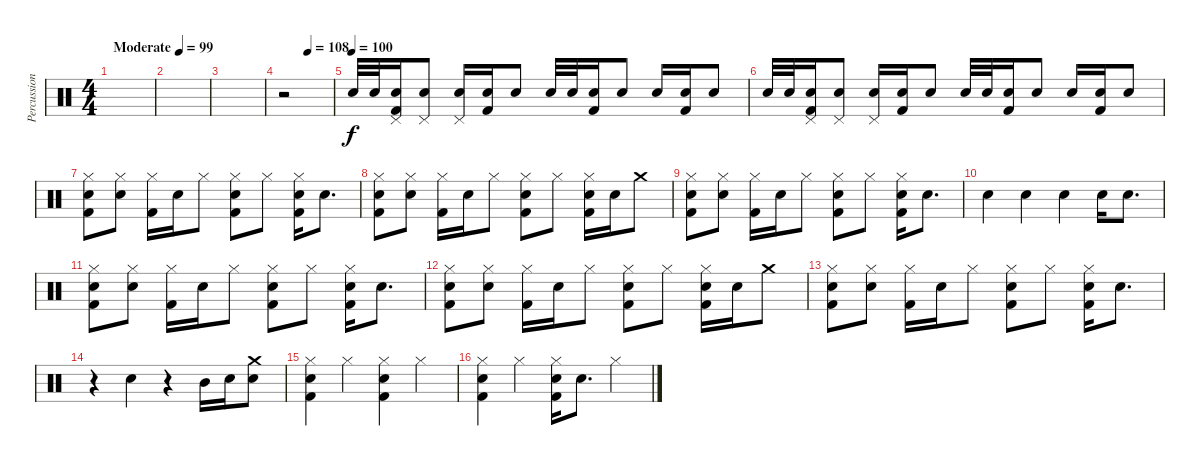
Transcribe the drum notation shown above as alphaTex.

\track ("Percussion" "Percussion") {instrument percussion}
\staff {score}
\articulation defaults
\ts (4 4)
\tempo (99 "Moderate")
\tempo 125
\tempo (99 "Moderate")
\clef neutral
\ks c
|
|
|
\tempo (108 0.5)
r.2 |
\tempo (100)
"Snare (hit) 2".32 "Snare (hit) 2".32 ("Snare (hit) 2" "Kick (hit) 2" "Pedal Hi-Hat (hit)").16 ("Snare (hit) 2" "Pedal Hi-Hat (hit)").8 ("Snare (hit) 2" "Pedal Hi-Hat (hit)").16 ("Snare (hit) 2" "Kick (hit) 2").16 "Snare (hit) 2".8 "Snare (hit) 2".32 "Snare (hit) 2".32 ("Snare (hit) 2" "Kick (hit) 2").16 "Snare (hit) 2".8 "Snare (hit) 2".16 ("Snare (hit) 2" "Kick (hit) 2").16 "Snare (hit) 2".8 |
"Snare (hit) 2".32 "Snare (hit) 2".32 ("Snare (hit) 2" "Kick (hit) 2" "Pedal Hi-Hat (hit)").16 ("Snare (hit) 2" "Pedal Hi-Hat (hit)").8 ("Snare (hit) 2" "Pedal Hi-Hat (hit)").16 ("Snare (hit) 2" "Kick (hit) 2").16 "Snare (hit) 2".8 "Snare (hit) 2".32 "Snare (hit) 2".32 ("Snare (hit) 2" "Kick (hit) 2").16 "Snare (hit) 2".8 "Snare (hit) 2".16 ("Snare (hit) 2" "Kick (hit) 2").16 "Snare (hit) 2".8 |
("Hi-Hat (closed)" "Snare (hit) 2" "Kick (hit) 2").8 ("Hi-Hat (closed)" "Snare (hit) 2").8 ("Hi-Hat (closed)" "Kick (hit) 2").16 "Snare (hit) 2".16 "Hi-Hat (closed)".8 ("Hi-Hat (closed)" "Snare (hit) 2" "Kick (hit) 2").8 "Hi-Hat (closed)".8 ("Hi-Hat (closed)" "Snare (hit) 2" "Kick (hit) 2").16 "Snare (hit) 2".8{d} |
("Hi-Hat (closed)" "Snare (hit) 2" "Kick (hit) 2").8 ("Hi-Hat (closed)" "Snare (hit) 2").8 ("Hi-Hat (closed)" "Kick (hit) 2").16 "Snare (hit) 2".16 "Hi-Hat (closed)".8 ("Hi-Hat (closed)" "Snare (hit) 2" "Kick (hit) 2").8 "Hi-Hat (closed)".8 ("Hi-Hat (closed)" "Snare (hit) 2" "Kick (hit) 2").16 "Snare (hit) 2".16 "Crash medium (hit)".8 |
("Hi-Hat (closed)" "Snare (hit) 2" "Kick (hit) 2").8 ("Hi-Hat (closed)" "Snare (hit) 2").8 ("Hi-Hat (closed)" "Kick (hit) 2").16 "Snare (hit) 2".16 "Hi-Hat (closed)".8 ("Hi-Hat (closed)" "Snare (hit) 2" "Kick (hit) 2").8 "Hi-Hat (closed)".8 ("Hi-Hat (closed)" "Snare (hit) 2" "Kick (hit) 2").16 "Snare (hit) 2".8{d} |
"Snare (hit) 2".4 "Snare (hit) 2".4 "Snare (hit) 2".4 "Snare (hit) 2".16 "Snare (hit) 2".8{d} |
("Hi-Hat (closed)" "Snare (hit) 2" "Kick (hit) 2").8 ("Hi-Hat (closed)" "Snare (hit) 2").8 ("Hi-Hat (closed)" "Kick (hit) 2").16 "Snare (hit) 2".16 "Hi-Hat (closed)".8 ("Hi-Hat (closed)" "Snare (hit) 2" "Kick (hit) 2").8 "Hi-Hat (closed)".8 ("Hi-Hat (closed)" "Snare (hit) 2" "Kick (hit) 2").16 "Snare (hit) 2".8{d} |
("Hi-Hat (closed)" "Snare (hit) 2" "Kick (hit) 2").8 ("Hi-Hat (closed)" "Snare (hit) 2").8 ("Hi-Hat (closed)" "Kick (hit) 2").16 "Snare (hit) 2".16 "Hi-Hat (closed)".8 ("Hi-Hat (closed)" "Snare (hit) 2" "Kick (hit) 2").8 "Hi-Hat (closed)".8 ("Hi-Hat (closed)" "Snare (hit) 2" "Kick (hit) 2").16 "Snare (hit) 2".16 "Crash medium (hit)".8 |
("Hi-Hat (closed)" "Snare (hit) 2" "Kick (hit) 2").8 ("Hi-Hat (closed)" "Snare (hit) 2").8 ("Hi-Hat (closed)" "Kick (hit) 2").16 "Snare (hit) 2".16 "Hi-Hat (closed)".8 ("Hi-Hat (closed)" "Snare (hit) 2" "Kick (hit) 2").8 "Hi-Hat (closed)".8 ("Hi-Hat (closed)" "Snare (hit) 2" "Kick (hit) 2").16 "Snare (hit) 2".8{d} |
r.4 "Snare (hit) 2".4 r.4 "Mid Tom (hit)".16 "Snare (hit) 2".16 ("Snare (hit) 2" "Crash medium (hit)").8 |
("Hi-Hat (closed)" "Snare (hit) 2" "Kick (hit) 2").4 "Hi-Hat (closed)".4 ("Hi-Hat (closed)" "Snare (hit) 2" "Kick (hit) 2").4 "Hi-Hat (closed)".4 |
("Hi-Hat (closed)" "Snare (hit) 2" "Kick (hit) 2").4 "Hi-Hat (closed)".4 ("Hi-Hat (closed)" "Snare (hit) 2" "Kick (hit) 2").16 "Snare (hit) 2".8{d} "Hi-Hat (closed)".4
